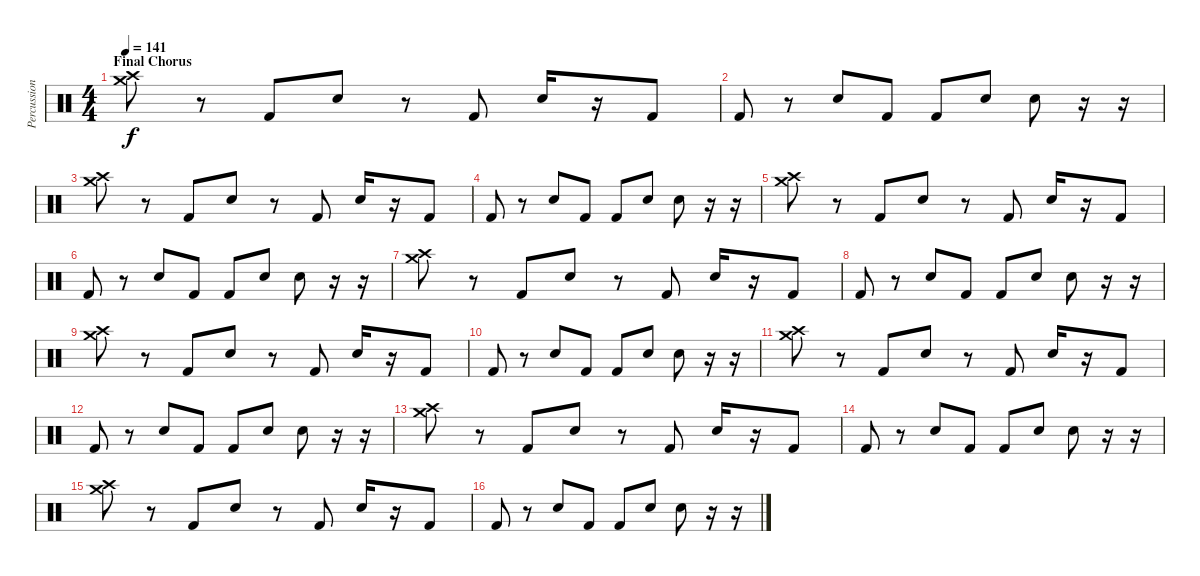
\track ("Percussion" "Percussion") {instrument percussion}
\staff {score}
\articulation defaults
\ts (4 4)
\section ("" "Final Chorus")
\tempo 141
\clef neutral
\ks c
("Crash high (hit)" "Crash medium (hit)").8{dy f} r.8 "Kick (hit) 2".8 "Electric Snare (hit)".8 r.8 "Kick (hit) 2".8 "Electric Snare (hit)".16 r.16 "Kick (hit) 2".8 |
"Kick (hit) 2".8 r.8 "Electric Snare (hit)".8 "Kick (hit) 2".8 "Kick (hit) 2".8 "Electric Snare (hit)".8 "Electric Snare (hit)".8 r.16 r.16 |
("Crash high (hit)" "Crash medium (hit)").8 r.8 "Kick (hit) 2".8 "Electric Snare (hit)".8 r.8 "Kick (hit) 2".8 "Electric Snare (hit)".16 r.16 "Kick (hit) 2".8 |
"Kick (hit) 2".8 r.8 "Electric Snare (hit)".8 "Kick (hit) 2".8 "Kick (hit) 2".8 "Electric Snare (hit)".8 "Electric Snare (hit)".8 r.16 r.16 |
("Crash high (hit)" "Crash medium (hit)").8 r.8 "Kick (hit) 2".8 "Electric Snare (hit)".8 r.8 "Kick (hit) 2".8 "Electric Snare (hit)".16 r.16 "Kick (hit) 2".8 |
"Kick (hit) 2".8 r.8 "Electric Snare (hit)".8 "Kick (hit) 2".8 "Kick (hit) 2".8 "Electric Snare (hit)".8 "Electric Snare (hit)".8 r.16 r.16 |
("Crash high (hit)" "Crash medium (hit)").8 r.8 "Kick (hit) 2".8 "Electric Snare (hit)".8 r.8 "Kick (hit) 2".8 "Electric Snare (hit)".16 r.16 "Kick (hit) 2".8 |
"Kick (hit) 2".8 r.8 "Electric Snare (hit)".8 "Kick (hit) 2".8 "Kick (hit) 2".8 "Electric Snare (hit)".8 "Electric Snare (hit)".8 r.16 r.16 |
("Crash high (hit)" "Crash medium (hit)").8 r.8 "Kick (hit) 2".8 "Electric Snare (hit)".8 r.8 "Kick (hit) 2".8 "Electric Snare (hit)".16 r.16 "Kick (hit) 2".8 |
"Kick (hit) 2".8 r.8 "Electric Snare (hit)".8 "Kick (hit) 2".8 "Kick (hit) 2".8 "Electric Snare (hit)".8 "Electric Snare (hit)".8 r.16 r.16 |
("Crash high (hit)" "Crash medium (hit)").8 r.8 "Kick (hit) 2".8 "Electric Snare (hit)".8 r.8 "Kick (hit) 2".8 "Electric Snare (hit)".16 r.16 "Kick (hit) 2".8 |
"Kick (hit) 2".8 r.8 "Electric Snare (hit)".8 "Kick (hit) 2".8 "Kick (hit) 2".8 "Electric Snare (hit)".8 "Electric Snare (hit)".8 r.16 r.16 |
("Crash high (hit)" "Crash medium (hit)").8 r.8 "Kick (hit) 2".8 "Electric Snare (hit)".8 r.8 "Kick (hit) 2".8 "Electric Snare (hit)".16 r.16 "Kick (hit) 2".8 |
"Kick (hit) 2".8 r.8 "Electric Snare (hit)".8 "Kick (hit) 2".8 "Kick (hit) 2".8 "Electric Snare (hit)".8 "Electric Snare (hit)".8 r.16 r.16 |
("Crash high (hit)" "Crash medium (hit)").8 r.8 "Kick (hit) 2".8 "Electric Snare (hit)".8 r.8 "Kick (hit) 2".8 "Electric Snare (hit)".16 r.16 "Kick (hit) 2".8 |
"Kick (hit) 2".8 r.8 "Electric Snare (hit)".8 "Kick (hit) 2".8 "Kick (hit) 2".8 "Electric Snare (hit)".8 "Electric Snare (hit)".8 r.16 r.16
